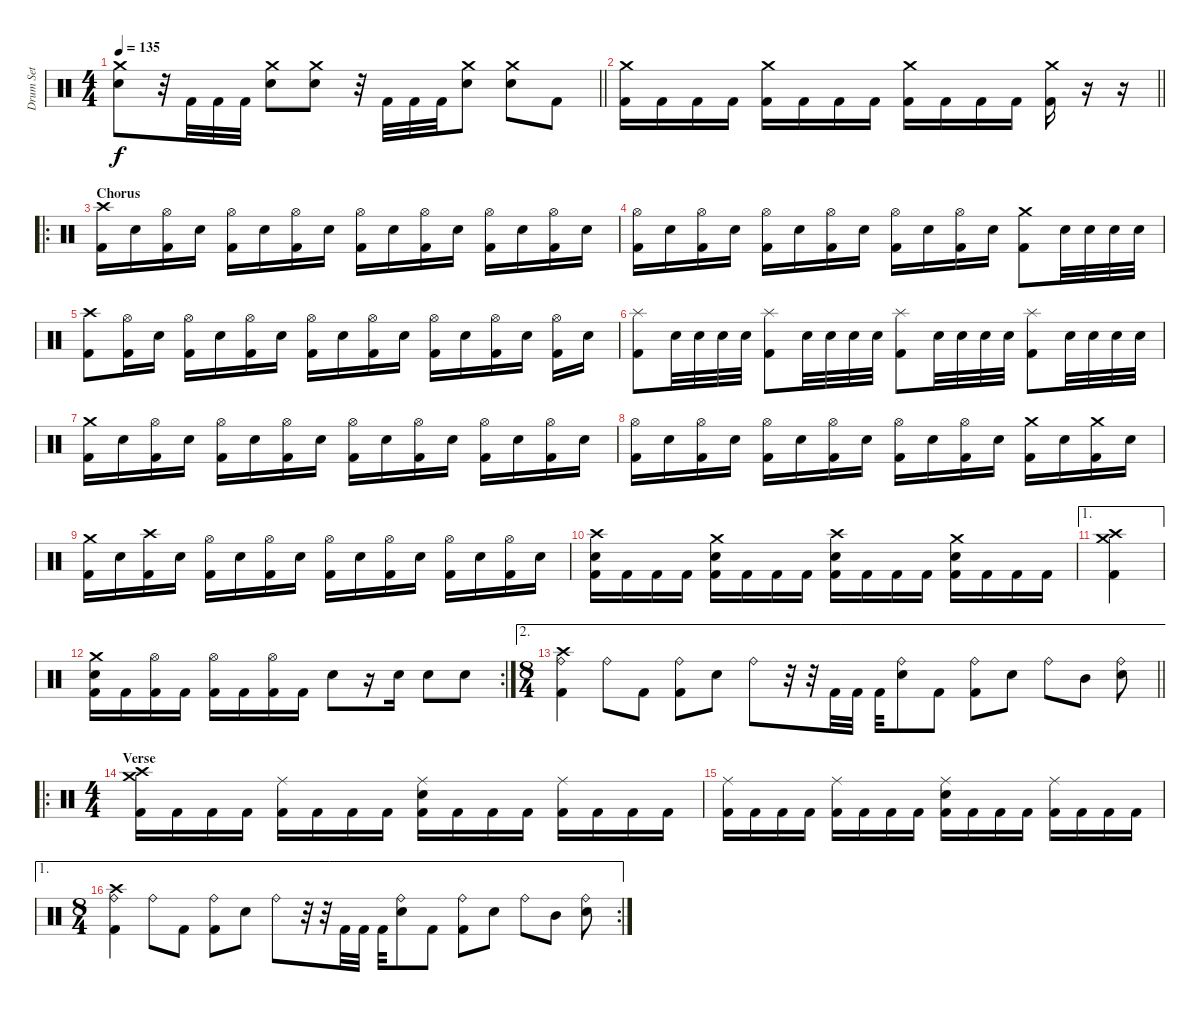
\track ("Drum Set" "Drum Set") {instrument percussion}
\staff {score}
\articulation defaults
\ts (4 4)
\tempo 135
\clef neutral
\barLineRight lightlight
\ks c
("Crash medium (hit)" "Snare (hit) 2").8{dy f} r.32 "Kick (hit) 2".32 "Kick (hit) 2".32 "Kick (hit) 2".32 ("Crash medium (hit)" "Snare (hit) 2").8 ("Crash medium (hit)" "Snare (hit) 2").8 r.32 "Kick (hit) 2".32 "Kick (hit) 2".32 "Kick (hit) 2".32 ("Crash medium (hit)" "Snare (hit) 2").8 ("Crash medium (hit)" "Snare (hit) 2").8 "Kick (hit) 2".8 |
\barLineRight lightlight
("Crash medium (hit)" "Kick (hit) 2").16 "Kick (hit) 2".16 "Kick (hit) 2".16 "Kick (hit) 2".16 ("Crash medium (hit)" "Kick (hit) 2").16 "Kick (hit) 2".16 "Kick (hit) 2".16 "Kick (hit) 2".16 ("Crash medium (hit)" "Kick (hit) 2").16 "Kick (hit) 2".16 "Kick (hit) 2".16 "Kick (hit) 2".16 ("Crash medium (hit)" "Kick (hit) 2").16 r.16 r.16 |
\ro
\section ("" "Chorus")
("Crash high (hit)" "Kick (hit) 2").16 "Snare (hit) 2".16 ("Hi-Hat (open)" "Kick (hit) 2").16 "Snare (hit) 2".16 ("Hi-Hat (open)" "Kick (hit) 2").16 "Snare (hit) 2".16 ("Hi-Hat (open)" "Kick (hit) 2").16 "Snare (hit) 2".16 ("Hi-Hat (open)" "Kick (hit) 2").16 "Snare (hit) 2".16 ("Hi-Hat (open)" "Kick (hit) 2").16 "Snare (hit) 2".16 ("Hi-Hat (open)" "Kick (hit) 2").16 "Snare (hit) 2".16 ("Hi-Hat (open)" "Kick (hit) 2").16 "Snare (hit) 2".16 |
("Hi-Hat (open)" "Kick (hit) 2").16 "Snare (hit) 2".16 ("Hi-Hat (open)" "Kick (hit) 2").16 "Snare (hit) 2".16 ("Hi-Hat (open)" "Kick (hit) 2").16 "Snare (hit) 2".16 ("Hi-Hat (open)" "Kick (hit) 2").16 "Snare (hit) 2".16 ("Hi-Hat (open)" "Kick (hit) 2").16 "Snare (hit) 2".16 ("Hi-Hat (open)" "Kick (hit) 2").16 "Snare (hit) 2".16 ("Crash medium (hit)" "Kick (hit) 2").8 "Snare (hit) 2".32 "Snare (hit) 2".32 "Snare (hit) 2".32 "Snare (hit) 2".32 |
("Crash high (hit)" "Kick (hit) 2").8 ("Hi-Hat (open)" "Kick (hit) 2").16 "Snare (hit) 2".16 ("Hi-Hat (open)" "Kick (hit) 2").16 "Snare (hit) 2".16 ("Hi-Hat (open)" "Kick (hit) 2").16 "Snare (hit) 2".16 ("Hi-Hat (open)" "Kick (hit) 2").16 "Snare (hit) 2".16 ("Hi-Hat (open)" "Kick (hit) 2").16 "Snare (hit) 2".16 ("Hi-Hat (open)" "Kick (hit) 2").16 "Snare (hit) 2".16 ("Hi-Hat (open)" "Kick (hit) 2").16 "Snare (hit) 2".16 ("Hi-Hat (open)" "Kick (hit) 2").16 "Snare (hit) 2".16 |
("Splash (hit)" "Kick (hit) 2").8 "Snare (hit) 2".32 "Snare (hit) 2".32 "Snare (hit) 2".32 "Snare (hit) 2".32 ("Splash (hit)" "Kick (hit) 2").8 "Snare (hit) 2".32 "Snare (hit) 2".32 "Snare (hit) 2".32 "Snare (hit) 2".32 ("Splash (hit)" "Kick (hit) 2").8 "Snare (hit) 2".32 "Snare (hit) 2".32 "Snare (hit) 2".32 "Snare (hit) 2".32 ("Splash (hit)" "Kick (hit) 2").8 "Snare (hit) 2".32 "Snare (hit) 2".32 "Snare (hit) 2".32 "Snare (hit) 2".32 |
("Crash medium (hit)" "Kick (hit) 2").16 "Snare (hit) 2".16 ("Hi-Hat (open)" "Kick (hit) 2").16 "Snare (hit) 2".16 ("Hi-Hat (open)" "Kick (hit) 2").16 "Snare (hit) 2".16 ("Hi-Hat (open)" "Kick (hit) 2").16 "Snare (hit) 2".16 ("Hi-Hat (open)" "Kick (hit) 2").16 "Snare (hit) 2".16 ("Hi-Hat (open)" "Kick (hit) 2").16 "Snare (hit) 2".16 ("Hi-Hat (open)" "Kick (hit) 2").16 "Snare (hit) 2".16 ("Hi-Hat (open)" "Kick (hit) 2").16 "Snare (hit) 2".16 |
("Hi-Hat (open)" "Kick (hit) 2").16 "Snare (hit) 2".16 ("Hi-Hat (open)" "Kick (hit) 2").16 "Snare (hit) 2".16 ("Hi-Hat (open)" "Kick (hit) 2").16 "Snare (hit) 2".16 ("Hi-Hat (open)" "Kick (hit) 2").16 "Snare (hit) 2".16 ("Hi-Hat (open)" "Kick (hit) 2").16 "Snare (hit) 2".16 ("Hi-Hat (open)" "Kick (hit) 2").16 "Snare (hit) 2".16 ("Crash medium (hit)" "Kick (hit) 2").16 "Snare (hit) 2".16 ("Crash medium (hit)" "Kick (hit) 2").16 "Snare (hit) 2".16 |
("Crash medium (hit)" "Kick (hit) 2").16 "Snare (hit) 2".16 ("Crash high (hit)" "Kick (hit) 2").16 "Snare (hit) 2".16 ("Hi-Hat (open)" "Kick (hit) 2").16 "Snare (hit) 2".16 ("Hi-Hat (open)" "Kick (hit) 2").16 "Snare (hit) 2".16 ("Hi-Hat (open)" "Kick (hit) 2").16 "Snare (hit) 2".16 ("Hi-Hat (open)" "Kick (hit) 2").16 "Snare (hit) 2".16 ("Hi-Hat (open)" "Kick (hit) 2").16 "Snare (hit) 2".16 ("Hi-Hat (open)" "Kick (hit) 2").16 "Snare (hit) 2".16 |
("Crash high (hit)" "Snare (hit) 2" "Kick (hit) 2").16 "Kick (hit) 2".16 "Kick (hit) 2".16 "Kick (hit) 2".16 ("Crash medium (hit)" "Snare (hit) 2" "Kick (hit) 2").16 "Kick (hit) 2".16 "Kick (hit) 2".16 "Kick (hit) 2".16 ("Crash high (hit)" "Snare (hit) 2" "Kick (hit) 2").16 "Kick (hit) 2".16 "Kick (hit) 2".16 "Kick (hit) 2".16 ("Snare (hit) 2" "Crash medium (hit)" "Kick (hit) 2").16 "Kick (hit) 2".16 "Kick (hit) 2".16 "Kick (hit) 2".16 |
\ae 1
("Crash high (hit)" "Crash medium (hit)" "Kick (hit) 2").4 |
\rc 2
("Crash medium (hit)" "Snare (hit) 2" "Kick (hit) 2").16 "Kick (hit) 2".16 ("Hi-Hat (open)" "Kick (hit) 2").16 "Kick (hit) 2".16 ("Hi-Hat (open)" "Kick (hit) 2").16 "Kick (hit) 2".16 ("Hi-Hat (open)" "Kick (hit) 2").16 "Kick (hit) 2".16 "Snare (hit) 2".8 r.16 "Snare (hit) 2".16 "Snare (hit) 2".8 "Snare (hit) 2".8 |
\ae 2
\ts (8 4)
\barLineRight lightlight
("Ride (bell)" "Crash high (hit)" "Kick (hit) 2").4 "Ride (bell)".8 "Kick (hit) 2".8 ("Ride (bell)" "Kick (hit) 2").8 "Snare (hit) 2".8 "Ride (bell)".8 r.32 r.32 "Kick (hit) 2".32 "Kick (hit) 2".32 "Kick (hit) 2".32 ("Ride (bell)" "Snare (hit) 2").8 "Kick (hit) 2".8 ("Ride (bell)" "Kick (hit) 2").8 "Snare (hit) 2".8 "Ride (bell)".8 "Mid Tom (hit)".8 ("Ride (bell)" "Snare (hit) 2").8 |
\ro
\ts (4 4)
\section ("" "Verse ")
("Crash high (hit)" "Crash medium (hit)" "Kick (hit) 2").16 "Kick (hit) 2".16 "Kick (hit) 2".16 "Kick (hit) 2".16 ("Ride (middle)" "Kick (hit) 2").16 "Kick (hit) 2".16 "Kick (hit) 2".16 "Kick (hit) 2".16 ("Ride (middle)" "Snare (hit) 2" "Kick (hit) 2").16 "Kick (hit) 2".16 "Kick (hit) 2".16 "Kick (hit) 2".16 ("Ride (middle)" "Kick (hit) 2").16 "Kick (hit) 2".16 "Kick (hit) 2".16 "Kick (hit) 2".16 |
("Ride (middle)" "Kick (hit) 2").16 "Kick (hit) 2".16 "Kick (hit) 2".16 "Kick (hit) 2".16 ("Ride (middle)" "Kick (hit) 2").16 "Kick (hit) 2".16 "Kick (hit) 2".16 "Kick (hit) 2".16 ("Ride (middle)" "Snare (hit) 2" "Kick (hit) 2").16 "Kick (hit) 2".16 "Kick (hit) 2".16 "Kick (hit) 2".16 ("Ride (middle)" "Kick (hit) 2").16 "Kick (hit) 2".16 "Kick (hit) 2".16 "Kick (hit) 2".16 |
\ae 1
\rc 2
\ts (8 4)
("Ride (bell)" "Crash high (hit)" "Kick (hit) 2").4 "Ride (bell)".8 "Kick (hit) 2".8 ("Ride (bell)" "Kick (hit) 2").8 "Snare (hit) 2".8 "Ride (bell)".8 r.32 r.32 "Kick (hit) 2".32 "Kick (hit) 2".32 "Kick (hit) 2".32 ("Ride (bell)" "Snare (hit) 2").8 "Kick (hit) 2".8 ("Ride (bell)" "Kick (hit) 2").8 "Snare (hit) 2".8 "Ride (bell)".8 "Mid Tom (hit)".8 ("Ride (bell)" "Snare (hit) 2").8
